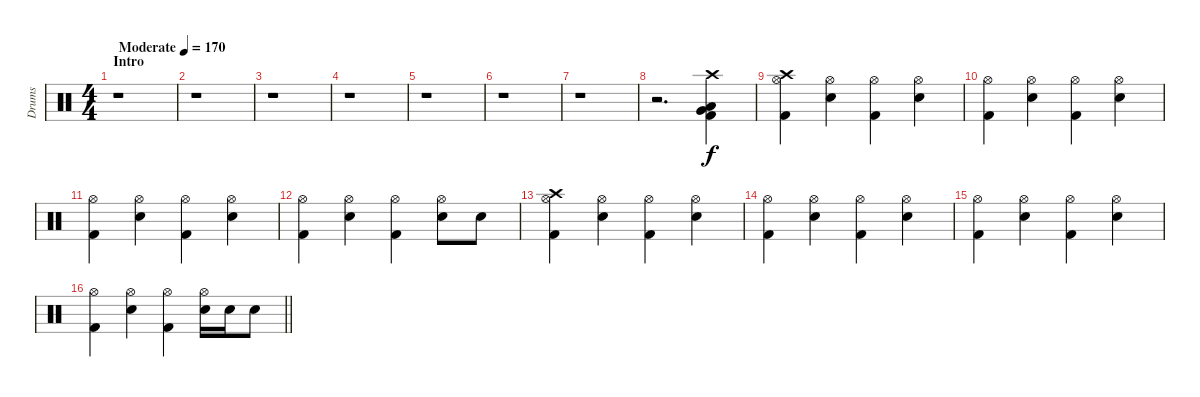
\track ("Drums" "Drums") {instrument percussion}
\staff {score}
\articulation defaults
\ts (4 4)
\section ("" "Intro")
\tempo (170 "Moderate")
\clef neutral
\ks c
r.1{dy f} |
r.1 |
r.1 |
r.1 |
r.1 |
r.1 |
r.1 |
r.2{d} ("Crash high (hit)" "Low Floor Tom (hit)" "Very Low Tom (hit)" "Kick (hit) 2").4 |
("Crash high (hit)" "Hi-Hat (open)" "Kick (hit) 2").4 ("Hi-Hat (open)" "Electric Snare (hit)").4 ("Hi-Hat (open)" "Kick (hit) 2").4 ("Hi-Hat (open)" "Electric Snare (hit)").4 |
("Hi-Hat (open)" "Kick (hit) 2").4 ("Hi-Hat (open)" "Electric Snare (hit)").4 ("Hi-Hat (open)" "Kick (hit) 2").4 ("Hi-Hat (open)" "Electric Snare (hit)").4 |
("Hi-Hat (open)" "Kick (hit) 2").4 ("Hi-Hat (open)" "Electric Snare (hit)").4 ("Hi-Hat (open)" "Kick (hit) 2").4 ("Hi-Hat (open)" "Electric Snare (hit)").4 |
("Hi-Hat (open)" "Kick (hit) 2").4 ("Hi-Hat (open)" "Electric Snare (hit)").4 ("Hi-Hat (open)" "Kick (hit) 2").4 ("Hi-Hat (open)" "Electric Snare (hit)").8 "Electric Snare (hit)".8 |
("Crash high (hit)" "Hi-Hat (open)" "Kick (hit) 2").4 ("Hi-Hat (open)" "Electric Snare (hit)").4 ("Hi-Hat (open)" "Kick (hit) 2").4 ("Hi-Hat (open)" "Electric Snare (hit)").4 |
("Hi-Hat (open)" "Kick (hit) 2").4 ("Hi-Hat (open)" "Electric Snare (hit)").4 ("Hi-Hat (open)" "Kick (hit) 2").4 ("Hi-Hat (open)" "Electric Snare (hit)").4 |
("Hi-Hat (open)" "Kick (hit) 2").4 ("Hi-Hat (open)" "Electric Snare (hit)").4 ("Hi-Hat (open)" "Kick (hit) 2").4 ("Hi-Hat (open)" "Electric Snare (hit)").4 |
\barLineRight lightlight
("Hi-Hat (open)" "Kick (hit) 2").4 ("Hi-Hat (open)" "Electric Snare (hit)").4 ("Hi-Hat (open)" "Kick (hit) 2").4 ("Hi-Hat (open)" "Electric Snare (hit)").16 "Electric Snare (hit)".16 "Electric Snare (hit)".8
